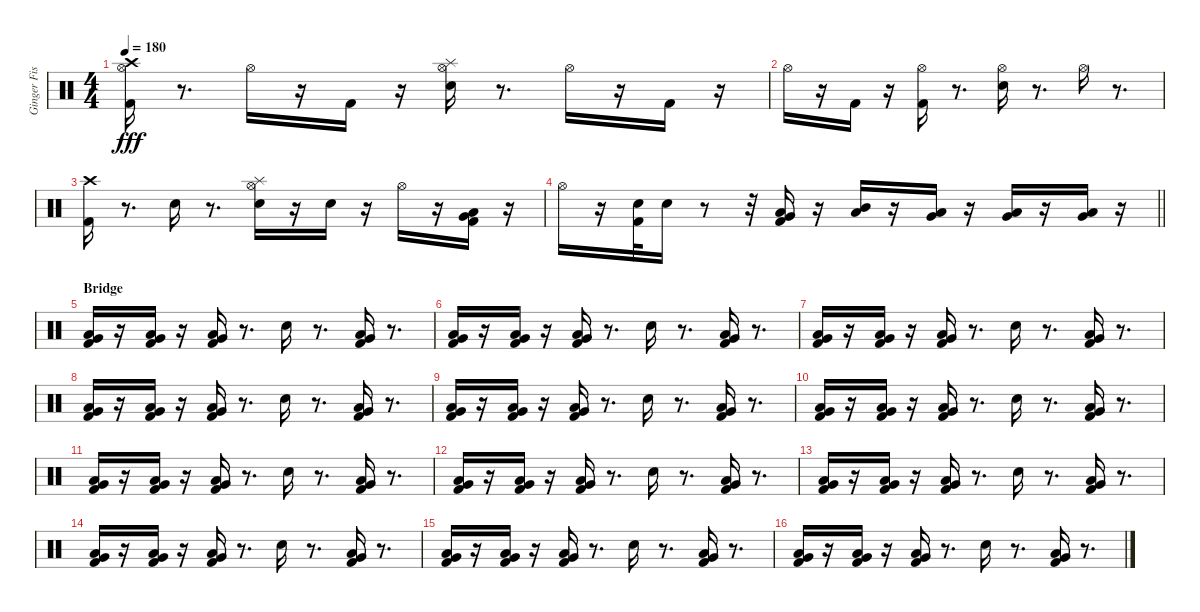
\track ("Ginger Fish" "Ginger Fis") {instrument percussion}
\staff {score}
\articulation defaults
\ts (4 4)
\tempo 180
\clef neutral
\ks c
("Crash high (hit)" "Kick (hit) 2" "Hi-Hat (open)").16{dy fff} r.8{d} "Hi-Hat (open)".16 r.16 "Kick (hit) 2".16 r.16 ("Splash (hit)" "Electric Snare (hit)" "Hi-Hat (open)").16 r.8{d} "Hi-Hat (open)".16 r.16 "Kick (hit) 2".16 r.16 |
"Hi-Hat (open)".16 r.16 "Kick (hit) 2".16 r.16 ("Hi-Hat (open)" "Kick (hit) 2").16 r.8{d} ("Hi-Hat (open)" "Electric Snare (hit)").16 r.8{d} "Hi-Hat (open)".16 r.8{d} |
("Crash high (hit)" "Kick (hit) 2").16 r.8{d} "Electric Snare (hit)".16 r.8{d} ("Splash (hit)" "Hi-Hat (open)" "Electric Snare (hit)").16 r.16 "Electric Snare (hit)".16 r.16 "Hi-Hat (open)".16 r.16 ("Very Low Tom (hit)" "Low Floor Tom (hit)" "Kick (hit) 2").16 r.16 |
\barLineRight lightlight "Hi-Hat (open)".16
r.16 ("Electric Snare (hit)" "Kick (hit) 2").32 "Electric Snare (hit)".16 r.8 r.32 ("Low Tom (hit)" "Very Low Tom (hit)" "Kick (hit) 2").16 r.16 ("Low Tom (hit)" "Mid Tom (hit)").16 r.16 ("Very Low Tom (hit)" "Low Tom (hit)").16 r.16 ("Low Tom (hit)" "Very Low Tom (hit)").16 r.16 ("Very Low Tom (hit)" "Low Floor Tom (hit)").16 r.16 |
\section ("" "Bridge")
("Low Floor Tom (hit)" "Very Low Tom (hit)" "Kick (hit) 2").16 r.16 ("Very Low Tom (hit)" "Low Tom (hit)" "Kick (hit) 2").16 r.16 ("Low Floor Tom (hit)" "Very Low Tom (hit)" "Kick (hit) 2").16 r.8{d} "Electric Snare (hit)".16 r.8{d} ("Very Low Tom (hit)" "Low Floor Tom (hit)" "Kick (hit) 2").16 r.8{d} |
("Kick (hit) 2" "Low Floor Tom (hit)" "Very Low Tom (hit)").16 r.16 ("Kick (hit) 2" "Very Low Tom (hit)" "Low Tom (hit)").16 r.16 ("Kick (hit) 2" "Low Floor Tom (hit)" "Very Low Tom (hit)").16 r.8{d} "Electric Snare (hit)".16 r.8{d} ("Kick (hit) 2" "Very Low Tom (hit)" "Low Floor Tom (hit)").16 r.8{d} |
("Very Low Tom (hit)" "Low Floor Tom (hit)" "Kick (hit) 2").16 r.16 ("Low Tom (hit)" "Very Low Tom (hit)" "Kick (hit) 2").16 r.16 ("Low Floor Tom (hit)" "Very Low Tom (hit)" "Kick (hit) 2").16 r.8{d} "Electric Snare (hit)".16 r.8{d} ("Kick (hit) 2" "Very Low Tom (hit)" "Low Floor Tom (hit)").16 r.8{d} |
("Kick (hit) 2" "Low Floor Tom (hit)" "Very Low Tom (hit)").16 r.16 ("Kick (hit) 2" "Very Low Tom (hit)" "Low Tom (hit)").16 r.16 ("Kick (hit) 2" "Low Floor Tom (hit)" "Very Low Tom (hit)").16 r.8{d} "Electric Snare (hit)".16 r.8{d} ("Kick (hit) 2" "Very Low Tom (hit)" "Low Floor Tom (hit)").16 r.8{d} |
("Very Low Tom (hit)" "Low Floor Tom (hit)" "Kick (hit) 2").16 r.16 ("Low Tom (hit)" "Very Low Tom (hit)" "Kick (hit) 2").16 r.16 ("Low Floor Tom (hit)" "Very Low Tom (hit)" "Kick (hit) 2").16 r.8{d} "Electric Snare (hit)".16 r.8{d} ("Kick (hit) 2" "Very Low Tom (hit)" "Low Floor Tom (hit)").16 r.8{d} |
("Kick (hit) 2" "Low Floor Tom (hit)" "Very Low Tom (hit)").16 r.16 ("Kick (hit) 2" "Very Low Tom (hit)" "Low Tom (hit)").16 r.16 ("Kick (hit) 2" "Low Floor Tom (hit)" "Very Low Tom (hit)").16 r.8{d} "Electric Snare (hit)".16 r.8{d} ("Kick (hit) 2" "Very Low Tom (hit)" "Low Floor Tom (hit)").16 r.8{d} |
("Very Low Tom (hit)" "Low Floor Tom (hit)" "Kick (hit) 2").16 r.16 ("Low Tom (hit)" "Very Low Tom (hit)" "Kick (hit) 2").16 r.16 ("Low Floor Tom (hit)" "Very Low Tom (hit)" "Kick (hit) 2").16 r.8{d} "Electric Snare (hit)".16 r.8{d} ("Kick (hit) 2" "Very Low Tom (hit)" "Low Floor Tom (hit)").16 r.8{d} |
("Kick (hit) 2" "Low Floor Tom (hit)" "Very Low Tom (hit)").16 r.16 ("Kick (hit) 2" "Very Low Tom (hit)" "Low Tom (hit)").16 r.16 ("Kick (hit) 2" "Low Floor Tom (hit)" "Very Low Tom (hit)").16 r.8{d} "Electric Snare (hit)".16 r.8{d} ("Kick (hit) 2" "Very Low Tom (hit)" "Low Floor Tom (hit)").16 r.8{d} |
("Very Low Tom (hit)" "Low Floor Tom (hit)" "Kick (hit) 2").16 r.16 ("Low Tom (hit)" "Very Low Tom (hit)" "Kick (hit) 2").16 r.16 ("Low Floor Tom (hit)" "Very Low Tom (hit)" "Kick (hit) 2").16 r.8{d} "Electric Snare (hit)".16 r.8{d} ("Kick (hit) 2" "Very Low Tom (hit)" "Low Floor Tom (hit)").16 r.8{d} |
("Kick (hit) 2" "Low Floor Tom (hit)" "Very Low Tom (hit)").16 r.16 ("Kick (hit) 2" "Very Low Tom (hit)" "Low Tom (hit)").16 r.16 ("Kick (hit) 2" "Low Floor Tom (hit)" "Very Low Tom (hit)").16 r.8{d} "Electric Snare (hit)".16 r.8{d} ("Kick (hit) 2" "Very Low Tom (hit)" "Low Floor Tom (hit)").16 r.8{d} |
("Very Low Tom (hit)" "Low Floor Tom (hit)" "Kick (hit) 2").16 r.16 ("Low Tom (hit)" "Very Low Tom (hit)" "Kick (hit) 2").16 r.16 ("Low Floor Tom (hit)" "Very Low Tom (hit)" "Kick (hit) 2").16 r.8{d} "Electric Snare (hit)".16 r.8{d} ("Kick (hit) 2" "Very Low Tom (hit)" "Low Floor Tom (hit)").16 r.8{d} |
("Kick (hit) 2" "Low Floor Tom (hit)" "Very Low Tom (hit)").16 r.16 ("Kick (hit) 2" "Very Low Tom (hit)" "Low Tom (hit)").16 r.16 ("Kick (hit) 2" "Low Floor Tom (hit)" "Very Low Tom (hit)").16 r.8{d} "Electric Snare (hit)".16 r.8{d} ("Kick (hit) 2" "Very Low Tom (hit)" "Low Floor Tom (hit)").16 r.8{d}
